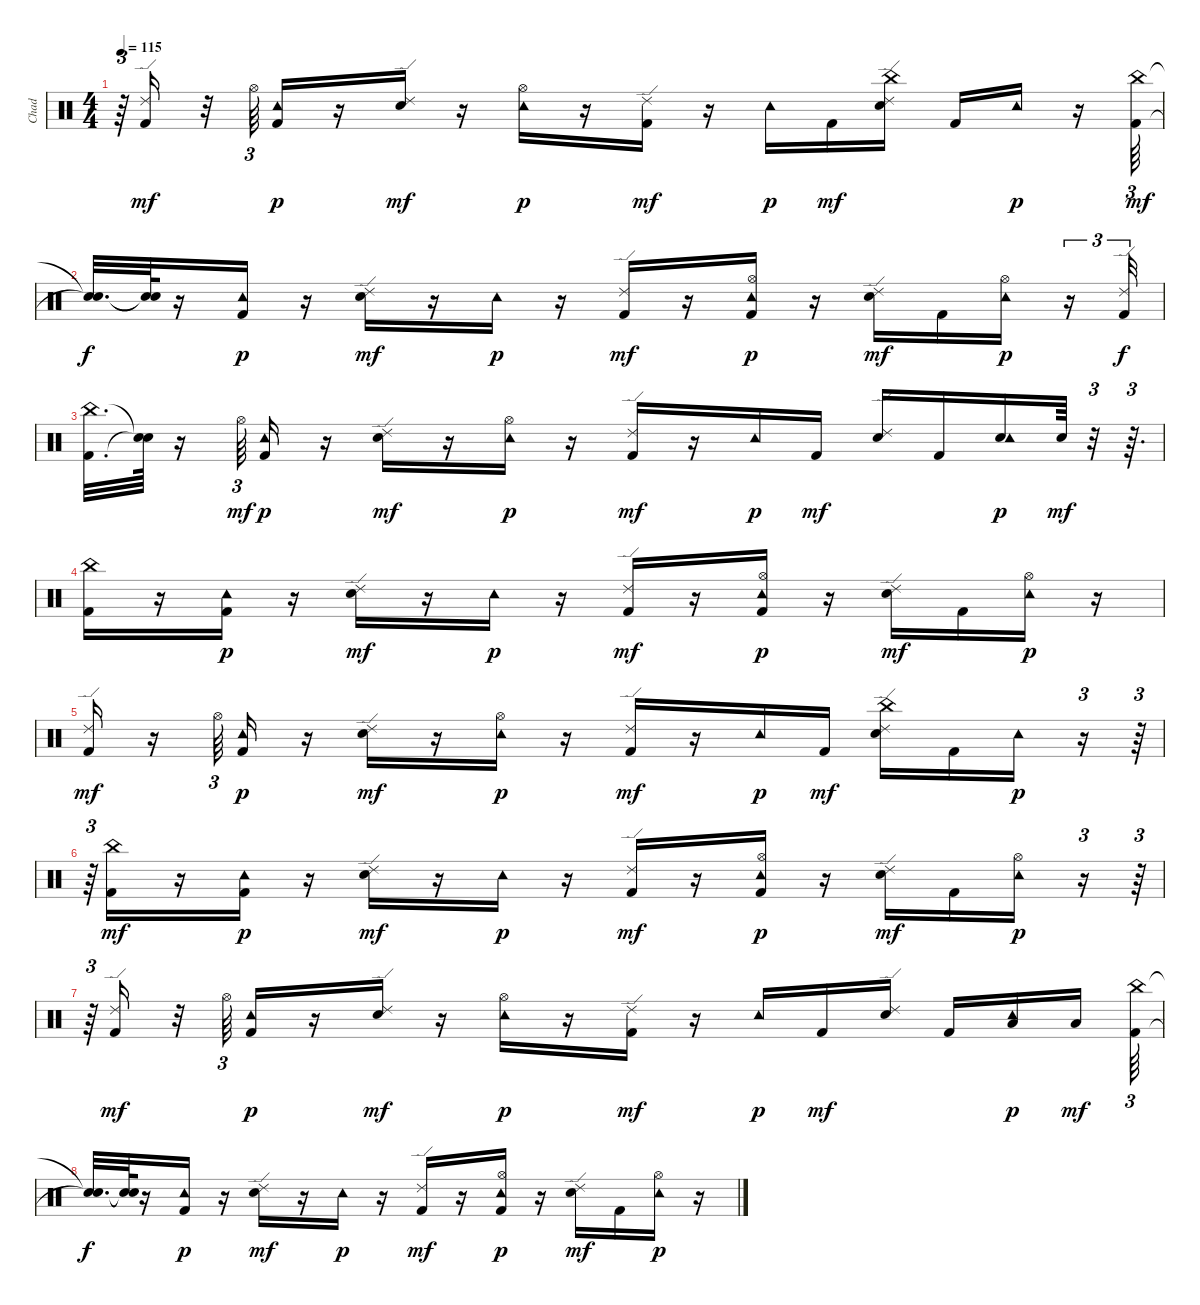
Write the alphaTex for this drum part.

\track ("Chad" "Chad") {instrument percussion}
\staff {score}
\articulation defaults
\ts (4 4)
\tempo 115
\clef neutral
\ks c
r.64{tu (3 2) dy p} ("Kick (hit) 2" "Ride (edge) 2").16{dy mf} r.32 "Hi-Hat (open)".64{tu (3 2)} ("Kick (hit) 2" "Tambourine (hit)").16{dy p} r.16 ("Snare (hit) 2" "Ride (edge) 2").16{dy mf} r.16 ("Hi-Hat (open)" "Tambourine (hit)").16{dy p} r.16 ("Kick (hit) 2" "Ride (edge) 2").16{dy mf} r.16 "Tambourine (hit)".16{dy p} "Kick (hit) 2".16{dy mf} ("Snare (hit) 2" "China (hit)" "Ride (edge) 2").16 "Kick (hit) 2".16 "Tambourine (hit)".16{dy p} r.16 ("Kick (hit) 2" "China (hit)").64{tu (3 2) dy mf} |
("Snare (hit)"{t} "Snare (hit)"{t}).32{d dy f} ("Snare (hit)"{t} "Snare (hit)"{t}).64 r.16 ("Kick (hit) 2" "Tambourine (hit)").16{dy p} r.16 ("Snare (hit) 2" "Ride (edge) 2").16{dy mf} r.16 "Tambourine (hit)".16{dy p} r.16 ("Kick (hit) 2" "Ride (edge) 2").16{dy mf} r.16 ("Kick (hit) 2" "Hi-Hat (open)" "Tambourine (hit)").16{dy p} r.16 ("Snare (hit) 2" "Ride (edge) 2").16{dy mf} "Kick (hit) 2".16 ("Hi-Hat (open)" "Tambourine (hit)").16{dy p} r.16{tu (3 2)} ("Kick (hit) 2" "Ride (edge) 2").32{tu (3 2) dy f} |
("Kick (hit) 2" "China (hit)").32{d} ("Snare (hit)"{t} "Snare (hit)"{t}).64 r.16 "Hi-Hat (open)".64{tu (3 2) dy mf} ("Kick (hit) 2" "Tambourine (hit)").16{dy p} r.16 ("Snare (hit) 2" "Ride (edge) 2").16{dy mf} r.16 ("Hi-Hat (open)" "Tambourine (hit)").16{dy p} r.16 ("Kick (hit) 2" "Ride (edge) 2").16{dy mf} r.16 "Tambourine (hit)".16{dy p} "Kick (hit) 2".16{dy mf} ("Snare (hit) 2" "Ride (edge) 2").16 "Kick (hit) 2".16 ("Snare (hit) 2" "Tambourine (hit)").16{dy p} "Snare (hit) 2".64{dy mf} r.32{tu (3 2)} r.64{d tu (3 2)} |
("Kick (hit) 2" "China (hit)").16 r.16 ("Kick (hit) 2" "Tambourine (hit)").16{dy p} r.16 ("Snare (hit) 2" "Ride (edge) 2").16{dy mf} r.16 "Tambourine (hit)".16{dy p} r.16 ("Kick (hit) 2" "Ride (edge) 2").16{dy mf} r.16 ("Kick (hit) 2" "Hi-Hat (open)" "Tambourine (hit)").16{dy p} r.16 ("Snare (hit) 2" "Ride (edge) 2").16{dy mf} "Kick (hit) 2".16 ("Hi-Hat (open)" "Tambourine (hit)").16{dy p} r.16 |
("Kick (hit) 2" "Ride (edge) 2").16{dy mf} r.16 "Hi-Hat (open)".64{tu (3 2)} ("Kick (hit) 2" "Tambourine (hit)").16{dy p} r.16 ("Snare (hit) 2" "Ride (edge) 2").16{dy mf} r.16 ("Hi-Hat (open)" "Tambourine (hit)").16{dy p} r.16 ("Kick (hit) 2" "Ride (edge) 2").16{dy mf} r.16 "Tambourine (hit)".16{dy p} "Kick (hit) 2".16{dy mf} ("Snare (hit) 2" "China (hit)" "Ride (edge) 2").16 "Kick (hit) 2".16 "Tambourine (hit)".16{dy p} r.16{tu (3 2)} r.64{tu (3 2)} |
r.64{tu (3 2)} ("Kick (hit) 2" "China (hit)").16{dy mf} r.16 ("Kick (hit) 2" "Tambourine (hit)").16{dy p} r.16 ("Snare (hit) 2" "Ride (edge) 2").16{dy mf} r.16 "Tambourine (hit)".16{dy p} r.16 ("Kick (hit) 2" "Ride (edge) 2").16{dy mf} r.16 ("Kick (hit) 2" "Hi-Hat (open)" "Tambourine (hit)").16{dy p} r.16 ("Snare (hit) 2" "Ride (edge) 2").16{dy mf} "Kick (hit) 2".16 ("Hi-Hat (open)" "Tambourine (hit)").16{dy p} r.16{tu (3 2)} r.64{tu (3 2)} |
r.64{tu (3 2)} ("Kick (hit) 2" "Ride (edge) 2").16{dy mf} r.32 "Hi-Hat (open)".64{tu (3 2)} ("Kick (hit) 2" "Tambourine (hit)").16{dy p} r.16 ("Snare (hit) 2" "Ride (edge) 2").16{dy mf} r.16 ("Hi-Hat (open)" "Tambourine (hit)").16{dy p} r.16 ("Kick (hit) 2" "Ride (edge) 2").16{dy mf} r.16 "Tambourine (hit)".16{dy p} "Kick (hit) 2".16{dy mf} ("Snare (hit) 2" "Ride (edge) 2").16 "Kick (hit) 2".16 ("Low Floor Tom (hit)" "Tambourine (hit)").16{dy p} "Low Floor Tom (hit)".16{dy mf beam splitsecondary} ("Kick (hit) 2" "China (hit)").64{tu (3 2)} |
("Snare (hit)"{t} "Snare (hit)"{t}).32{d dy f} ("Snare (hit)"{t} "Snare (hit)"{t}).64 r.16 ("Kick (hit) 2" "Tambourine (hit)").16{dy p} r.16 ("Snare (hit) 2" "Ride (edge) 2").16{dy mf} r.16 "Tambourine (hit)".16{dy p} r.16 ("Kick (hit) 2" "Ride (edge) 2").16{dy mf} r.16 ("Kick (hit) 2" "Hi-Hat (open)" "Tambourine (hit)").16{dy p} r.16 ("Snare (hit) 2" "Ride (edge) 2").16{dy mf} "Kick (hit) 2".16 ("Hi-Hat (open)" "Tambourine (hit)").16{dy p} r.16
